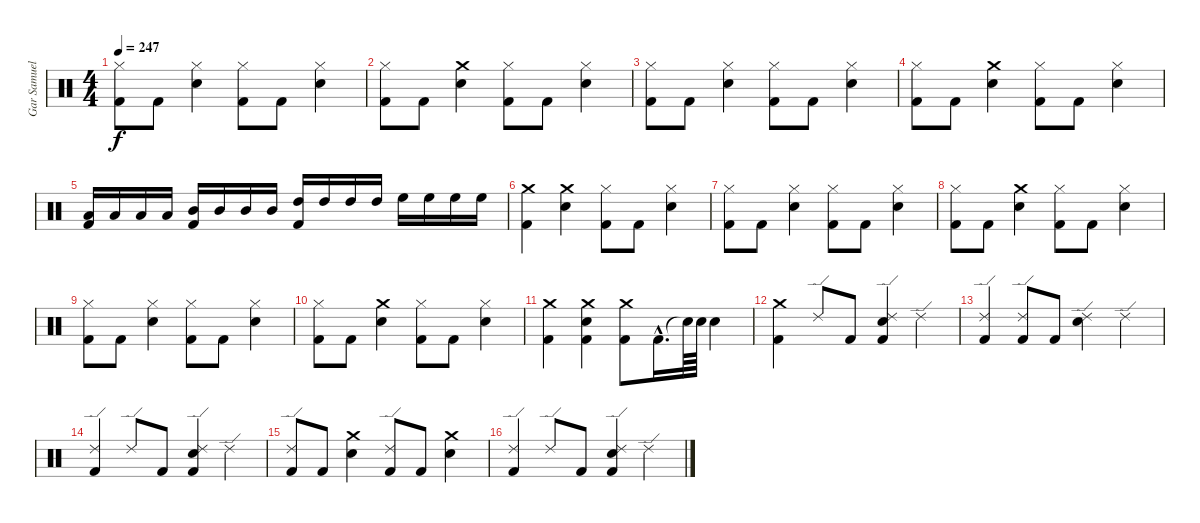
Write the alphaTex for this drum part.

\track ("Gar Samuelson (Drums)" "Gar Samuel") {instrument percussion}
\staff {score}
\articulation defaults
\ts (4 4)
\tempo 247
\clef neutral
\ks c
("Kick (hit) 2" "Hi-Hat (closed)").8{dy f} "Kick (hit) 2".8 ("Snare (hit) 2" "Hi-Hat (closed)").4 ("Kick (hit) 2" "Hi-Hat (closed)").8 "Kick (hit) 2".8 ("Snare (hit) 2" "Hi-Hat (closed)").4 |
("Kick (hit) 2" "Hi-Hat (closed)").8 "Kick (hit) 2".8 ("Crash medium (hit)" "Snare (hit) 2").4 ("Kick (hit) 2" "Hi-Hat (closed)").8 "Kick (hit) 2".8 ("Snare (hit) 2" "Hi-Hat (closed)").4 |
("Kick (hit) 2" "Hi-Hat (closed)").8 "Kick (hit) 2".8 ("Snare (hit) 2" "Hi-Hat (closed)").4 ("Kick (hit) 2" "Hi-Hat (closed)").8 "Kick (hit) 2".8 ("Snare (hit) 2" "Hi-Hat (closed)").4 |
("Kick (hit) 2" "Hi-Hat (closed)").8 "Kick (hit) 2".8 ("Crash medium (hit)" "Snare (hit) 2").4 ("Kick (hit) 2" "Hi-Hat (closed)").8 "Kick (hit) 2".8 ("Snare (hit) 2" "Hi-Hat (closed)").4 |
("Low Tom (hit)" "Kick (hit) 2").16 "Low Tom (hit)".16 "Low Tom (hit)".16 "Low Tom (hit)".16 ("Mid Tom (hit)" "Kick (hit) 2").16 "Mid Tom (hit)".16 "Mid Tom (hit)".16 "Mid Tom (hit)".16 ("High Tom (hit)" "Kick (hit) 2").16 "High Tom (hit)".16 "High Tom (hit)".16 "High Tom (hit)".16 "High Floor Tom (hit)".16 "High Floor Tom (hit)".16 "High Floor Tom (hit)".16 "High Floor Tom (hit)".16 |
("Kick (hit) 2" "Crash medium (hit)").4 ("Snare (hit) 2" "Crash medium (hit)").4 ("Hi-Hat (closed)" "Kick (hit) 2").8 "Kick (hit) 2".8 ("Hi-Hat (closed)" "Snare (hit) 2").4 |
("Kick (hit) 2" "Hi-Hat (closed)").8 "Kick (hit) 2".8 ("Snare (hit) 2" "Hi-Hat (closed)").4 ("Kick (hit) 2" "Hi-Hat (closed)").8 "Kick (hit) 2".8 ("Snare (hit) 2" "Hi-Hat (closed)").4 |
("Kick (hit) 2" "Hi-Hat (closed)").8 "Kick (hit) 2".8 ("Crash medium (hit)" "Snare (hit) 2").4 ("Kick (hit) 2" "Hi-Hat (closed)").8 "Kick (hit) 2".8 ("Snare (hit) 2" "Hi-Hat (closed)").4 |
("Kick (hit) 2" "Hi-Hat (closed)").8 "Kick (hit) 2".8 ("Snare (hit) 2" "Hi-Hat (closed)").4 ("Kick (hit) 2" "Hi-Hat (closed)").8 "Kick (hit) 2".8 ("Snare (hit) 2" "Hi-Hat (closed)").4 |
("Kick (hit) 2" "Hi-Hat (closed)").8 "Kick (hit) 2".8 ("Crash medium (hit)" "Snare (hit) 2").4 ("Kick (hit) 2" "Hi-Hat (closed)").8 "Kick (hit) 2".8 ("Snare (hit) 2" "Hi-Hat (closed)").4 |
("Kick (hit) 2" "Crash medium (hit)").4 ("Kick (hit) 2" "Snare (hit) 2" "Crash medium (hit)").4 ("Kick (hit) 2" "Crash medium (hit)").8 "Kick (hit) 2"{hac}.16{d} "Snare (hit)"{t}.64 "Snare (hit) 2".64 "Snare (hit) 2".4 |
("Kick (hit) 2" "Crash medium (hit)").4 "Ride (edge) 2".8 "Kick (hit) 2".8 ("Kick (hit) 2" "Snare (hit) 2" "Ride (edge) 2").4 "Ride (edge) 2".4 |
("Kick (hit) 2" "Ride (edge) 2").4 ("Ride (edge) 2" "Kick (hit) 2").8 "Kick (hit) 2".8 ("Snare (hit) 2" "Ride (edge) 2").4 "Ride (edge) 2".4 |
("Kick (hit) 2" "Ride (edge) 2").4 "Ride (edge) 2".8 "Kick (hit) 2".8 ("Ride (edge) 2" "Snare (hit) 2" "Kick (hit) 2").4 "Ride (edge) 2".4 |
("Ride (edge) 2" "Kick (hit) 2").8 "Kick (hit) 2".8 ("Snare (hit) 2" "Crash medium (hit)").4 ("Ride (edge) 2" "Kick (hit) 2").8 "Kick (hit) 2".8 ("Snare (hit) 2" "Crash medium (hit)").4 |
("Ride (edge) 2" "Kick (hit) 2").4 "Ride (edge) 2".8 "Kick (hit) 2".8 ("Ride (edge) 2" "Snare (hit) 2" "Kick (hit) 2").4 "Ride (edge) 2".4
